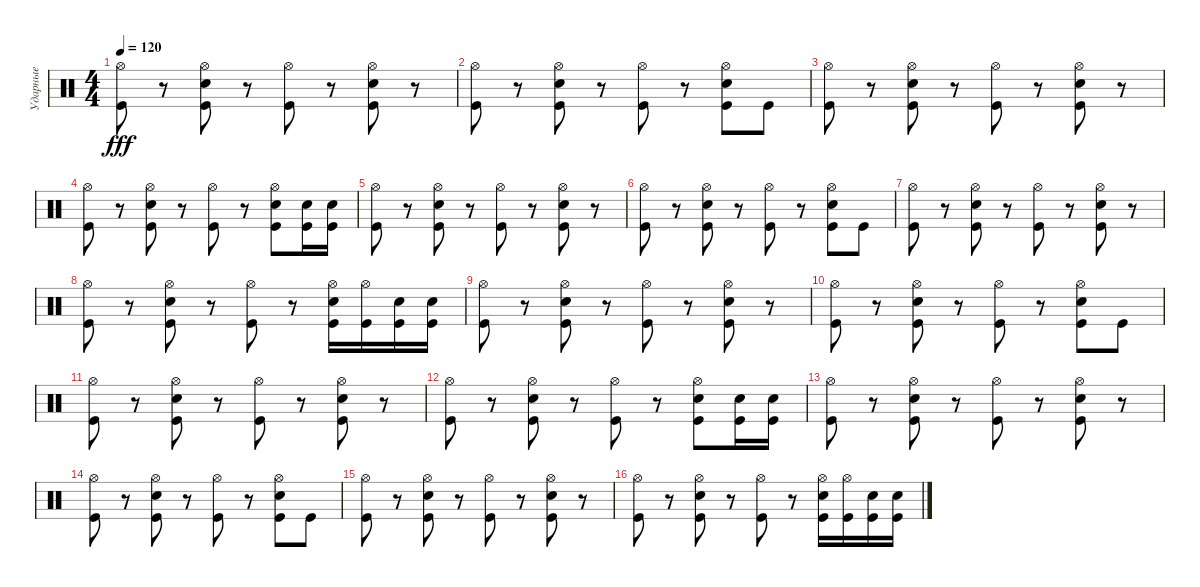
\track ("Ударные" "Ударные") {instrument percussion}
\staff {score}
\articulation defaults
\ts (4 4)
\tempo 120
\clef neutral
\ks c
("Hi-Hat (open)" "Kick (hit)").8{dy fff} r.8 ("Hi-Hat (open)" "Snare (hit) 2" "Kick (hit)").8 r.8 ("Hi-Hat (open)" "Kick (hit)").8 r.8 ("Hi-Hat (open)" "Snare (hit) 2" "Kick (hit)").8 r.8 |
("Hi-Hat (open)" "Kick (hit)").8 r.8 ("Hi-Hat (open)" "Snare (hit) 2" "Kick (hit)").8 r.8 ("Hi-Hat (open)" "Kick (hit)").8 r.8 ("Hi-Hat (open)" "Snare (hit) 2" "Kick (hit)").8 "Kick (hit)".8 |
("Hi-Hat (open)" "Kick (hit)").8 r.8 ("Hi-Hat (open)" "Snare (hit) 2" "Kick (hit)").8 r.8 ("Hi-Hat (open)" "Kick (hit)").8 r.8 ("Hi-Hat (open)" "Snare (hit) 2" "Kick (hit)").8 r.8 |
("Hi-Hat (open)" "Kick (hit)").8 r.8 ("Hi-Hat (open)" "Snare (hit) 2" "Kick (hit)").8 r.8 ("Hi-Hat (open)" "Kick (hit)").8 r.8 ("Hi-Hat (open)" "Snare (hit) 2" "Kick (hit)").8 ("Snare (hit) 2" "Kick (hit)").16 ("Snare (hit) 2" "Kick (hit)").16 |
("Hi-Hat (open)" "Kick (hit)").8 r.8 ("Hi-Hat (open)" "Snare (hit) 2" "Kick (hit)").8 r.8 ("Hi-Hat (open)" "Kick (hit)").8 r.8 ("Hi-Hat (open)" "Snare (hit) 2" "Kick (hit)").8 r.8 |
("Hi-Hat (open)" "Kick (hit)").8 r.8 ("Hi-Hat (open)" "Snare (hit) 2" "Kick (hit)").8 r.8 ("Hi-Hat (open)" "Kick (hit)").8 r.8 ("Hi-Hat (open)" "Snare (hit) 2" "Kick (hit)").8 "Kick (hit)".8 |
("Hi-Hat (open)" "Kick (hit)").8 r.8 ("Hi-Hat (open)" "Snare (hit) 2" "Kick (hit)").8 r.8 ("Hi-Hat (open)" "Kick (hit)").8 r.8 ("Hi-Hat (open)" "Snare (hit) 2" "Kick (hit)").8 r.8 |
("Hi-Hat (open)" "Kick (hit)").8 r.8 ("Hi-Hat (open)" "Snare (hit) 2" "Kick (hit)").8 r.8 ("Hi-Hat (open)" "Kick (hit)").8 r.8 ("Hi-Hat (open)" "Snare (hit) 2" "Kick (hit)").16 ("Hi-Hat (open)" "Kick (hit)").16 ("Snare (hit) 2" "Kick (hit)").16 ("Snare (hit) 2" "Kick (hit)").16 |
("Hi-Hat (open)" "Kick (hit)").8 r.8 ("Hi-Hat (open)" "Snare (hit) 2" "Kick (hit)").8 r.8 ("Hi-Hat (open)" "Kick (hit)").8 r.8 ("Hi-Hat (open)" "Snare (hit) 2" "Kick (hit)").8 r.8 |
("Hi-Hat (open)" "Kick (hit)").8 r.8 ("Hi-Hat (open)" "Snare (hit) 2" "Kick (hit)").8 r.8 ("Hi-Hat (open)" "Kick (hit)").8 r.8 ("Hi-Hat (open)" "Snare (hit) 2" "Kick (hit)").8 "Kick (hit)".8 |
("Hi-Hat (open)" "Kick (hit)").8 r.8 ("Hi-Hat (open)" "Snare (hit) 2" "Kick (hit)").8 r.8 ("Hi-Hat (open)" "Kick (hit)").8 r.8 ("Hi-Hat (open)" "Snare (hit) 2" "Kick (hit)").8 r.8 |
("Hi-Hat (open)" "Kick (hit)").8 r.8 ("Hi-Hat (open)" "Snare (hit) 2" "Kick (hit)").8 r.8 ("Hi-Hat (open)" "Kick (hit)").8 r.8 ("Hi-Hat (open)" "Snare (hit) 2" "Kick (hit)").8 ("Snare (hit) 2" "Kick (hit)").16 ("Snare (hit) 2" "Kick (hit)").16 |
("Hi-Hat (open)" "Kick (hit)").8 r.8 ("Hi-Hat (open)" "Snare (hit) 2" "Kick (hit)").8 r.8 ("Hi-Hat (open)" "Kick (hit)").8 r.8 ("Hi-Hat (open)" "Snare (hit) 2" "Kick (hit)").8 r.8 |
("Hi-Hat (open)" "Kick (hit)").8 r.8 ("Hi-Hat (open)" "Snare (hit) 2" "Kick (hit)").8 r.8 ("Hi-Hat (open)" "Kick (hit)").8 r.8 ("Hi-Hat (open)" "Snare (hit) 2" "Kick (hit)").8 "Kick (hit)".8 |
("Hi-Hat (open)" "Kick (hit)").8 r.8 ("Hi-Hat (open)" "Snare (hit) 2" "Kick (hit)").8 r.8 ("Hi-Hat (open)" "Kick (hit)").8 r.8 ("Hi-Hat (open)" "Snare (hit) 2" "Kick (hit)").8 r.8 |
("Hi-Hat (open)" "Kick (hit)").8 r.8 ("Hi-Hat (open)" "Snare (hit) 2" "Kick (hit)").8 r.8 ("Hi-Hat (open)" "Kick (hit)").8 r.8 ("Hi-Hat (open)" "Snare (hit) 2" "Kick (hit)").16 ("Hi-Hat (open)" "Kick (hit)").16 ("Snare (hit) 2" "Kick (hit)").16 ("Snare (hit) 2" "Kick (hit)").16
